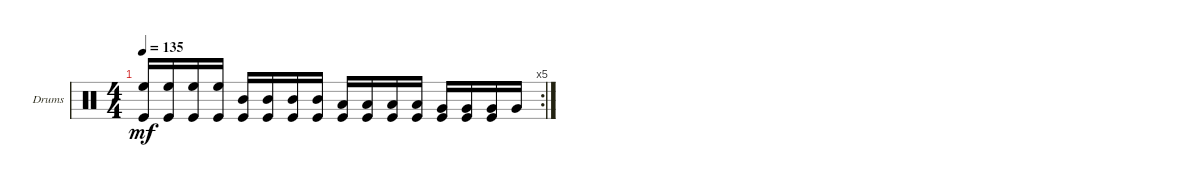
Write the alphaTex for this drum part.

\defaultSystemsLayout 4
\bracketExtendMode groupsimilarinstruments
\firstSystemTrackNameOrientation horizontal
\otherSystemsTrackNameOrientation horizontal
\track ("Drums" "Drums") {instrument percussion}
\staff {score}
\articulation defaults
\rc 5
\ts (4 4)
\tempo 135
\clef neutral
\ks c
("High Floor Tom (hit)" "Kick (hit)").16{dy mf} ("High Floor Tom (hit)" "Kick (hit)").16 ("High Floor Tom (hit)" "Kick (hit)").16 ("High Floor Tom (hit)" "Kick (hit)").16 ("Mid Tom (hit)" "Kick (hit)").16 ("Mid Tom (hit)" "Kick (hit)").16 ("Mid Tom (hit)" "Kick (hit)").16 ("Mid Tom (hit)" "Kick (hit)").16 ("Low Tom (hit)" "Kick (hit)").16 ("Low Tom (hit)" "Kick (hit)").16 ("Low Tom (hit)" "Kick (hit)").16 ("Low Tom (hit)" "Kick (hit)").16 ("Very Low Tom (hit)" "Kick (hit)").16 ("Very Low Tom (hit)" "Kick (hit)").16 ("Very Low Tom (hit)" "Kick (hit)").16 "Very Low Tom (hit)".16
